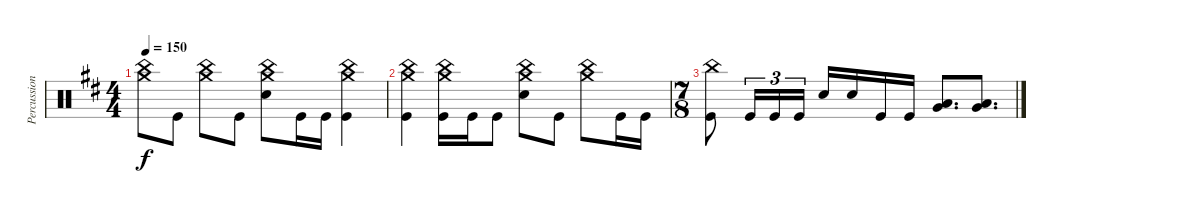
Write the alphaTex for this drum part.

\track ("Percussion" "Percussion") {instrument percussion}
\staff {score}
\articulation defaults
\ts (4 4)
\tempo 150
\clef neutral
\ks bminor
("Crash medium (hit)" "China (hit)").8{dy f} "Kick (hit)".8 ("Crash medium (hit)" "China (hit)").8 "Kick (hit)".8 ("Crash medium (hit)" "China (hit)" "Electric Snare (hit)").8 "Kick (hit)".16 "Kick (hit)".16 ("Crash medium (hit)" "China (hit)" "Kick (hit)").4 |
("Crash medium (hit)" "China (hit)" "Kick (hit)").4 ("Crash medium (hit)" "China (hit)" "Kick (hit)").16 "Kick (hit)".16 "Kick (hit)".8 ("Crash medium (hit)" "China (hit)" "Electric Snare (hit)").8 "Kick (hit)".8 ("Crash medium (hit)" "China (hit)").8 "Kick (hit)".16 "Kick (hit)".16 |
\ts (7 8)
("China (hit)" "Kick (hit)").8{beam split} "Kick (hit)".16{tu (3 2)} "Kick (hit)".16{tu (3 2)} "Kick (hit)".16{tu (3 2)} "Electric Snare (hit)".16 "Electric Snare (hit)".16 "Kick (hit)".16 "Kick (hit)".16 ("Low Tom (hit)" "Very Low Tom (hit)").8{d} ("Very Low Tom (hit)" "Low Floor Tom (hit)").8{d}
